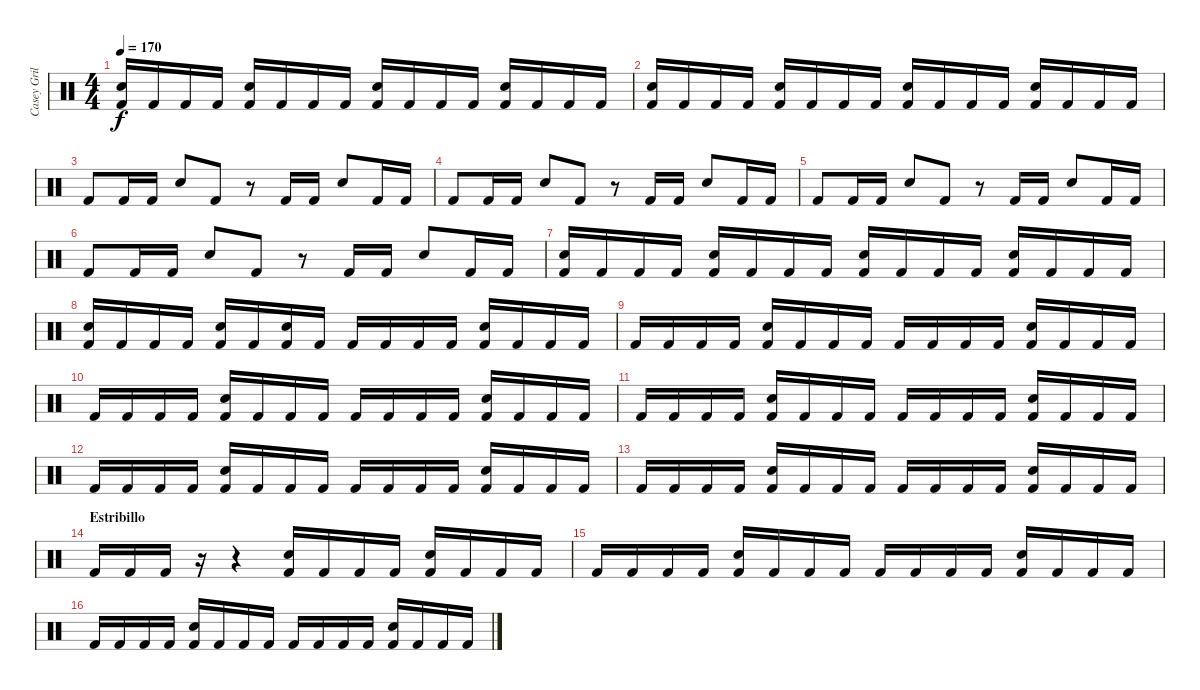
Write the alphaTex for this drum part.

\track ("Casey Grillo" "Casey Gril") {instrument percussion}
\staff {score}
\articulation defaults
\ts (4 4)
\tempo 170
\clef neutral
\ks c
("Snare (hit) 2" "Kick (hit) 2").16{dy f} "Kick (hit) 2".16 "Kick (hit) 2".16 "Kick (hit) 2".16 ("Snare (hit) 2" "Kick (hit) 2").16 "Kick (hit) 2".16 "Kick (hit) 2".16 "Kick (hit) 2".16 ("Snare (hit) 2" "Kick (hit) 2").16 "Kick (hit) 2".16 "Kick (hit) 2".16 "Kick (hit) 2".16 ("Snare (hit) 2" "Kick (hit) 2").16 "Kick (hit) 2".16 "Kick (hit) 2".16 "Kick (hit) 2".16 |
("Snare (hit) 2" "Kick (hit) 2").16 "Kick (hit) 2".16 "Kick (hit) 2".16 "Kick (hit) 2".16 ("Snare (hit) 2" "Kick (hit) 2").16 "Kick (hit) 2".16 "Kick (hit) 2".16 "Kick (hit) 2".16 ("Snare (hit) 2" "Kick (hit) 2").16 "Kick (hit) 2".16 "Kick (hit) 2".16 "Kick (hit) 2".16 ("Snare (hit) 2" "Kick (hit) 2").16 "Kick (hit) 2".16 "Kick (hit) 2".16 "Kick (hit) 2".16 |
"Kick (hit) 2".8 "Kick (hit) 2".16 "Kick (hit) 2".16 "Snare (hit) 2".8 "Kick (hit) 2".8 r.8 "Kick (hit) 2".16 "Kick (hit) 2".16 "Snare (hit) 2".8 "Kick (hit) 2".16 "Kick (hit) 2".16 |
"Kick (hit) 2".8 "Kick (hit) 2".16 "Kick (hit) 2".16 "Snare (hit) 2".8 "Kick (hit) 2".8 r.8 "Kick (hit) 2".16 "Kick (hit) 2".16 "Snare (hit) 2".8 "Kick (hit) 2".16 "Kick (hit) 2".16 |
"Kick (hit) 2".8 "Kick (hit) 2".16 "Kick (hit) 2".16 "Snare (hit) 2".8 "Kick (hit) 2".8 r.8 "Kick (hit) 2".16 "Kick (hit) 2".16 "Snare (hit) 2".8 "Kick (hit) 2".16 "Kick (hit) 2".16 |
"Kick (hit) 2".8 "Kick (hit) 2".16 "Kick (hit) 2".16 "Snare (hit) 2".8 "Kick (hit) 2".8 r.8 "Kick (hit) 2".16 "Kick (hit) 2".16 "Snare (hit) 2".8 "Kick (hit) 2".16 "Kick (hit) 2".16 |
("Snare (hit) 2" "Kick (hit) 2").16 "Kick (hit) 2".16 "Kick (hit) 2".16 "Kick (hit) 2".16 ("Snare (hit) 2" "Kick (hit) 2").16 "Kick (hit) 2".16 "Kick (hit) 2".16 "Kick (hit) 2".16 ("Snare (hit) 2" "Kick (hit) 2").16 "Kick (hit) 2".16 "Kick (hit) 2".16 "Kick (hit) 2".16 ("Snare (hit) 2" "Kick (hit) 2").16 "Kick (hit) 2".16 "Kick (hit) 2".16 "Kick (hit) 2".16 |
("Snare (hit) 2" "Kick (hit) 2").16 "Kick (hit) 2".16 "Kick (hit) 2".16 "Kick (hit) 2".16 ("Snare (hit) 2" "Kick (hit) 2").16 "Kick (hit) 2".16 ("Snare (hit) 2" "Kick (hit) 2").16 "Kick (hit) 2".16 "Kick (hit) 2".16 "Kick (hit) 2".16 "Kick (hit) 2".16 "Kick (hit) 2".16 ("Snare (hit) 2" "Kick (hit) 2").16 "Kick (hit) 2".16 "Kick (hit) 2".16 "Kick (hit) 2".16 |
"Kick (hit) 2".16 "Kick (hit) 2".16 "Kick (hit) 2".16 "Kick (hit) 2".16 ("Snare (hit) 2" "Kick (hit) 2").16 "Kick (hit) 2".16 "Kick (hit) 2".16 "Kick (hit) 2".16 "Kick (hit) 2".16 "Kick (hit) 2".16 "Kick (hit) 2".16 "Kick (hit) 2".16 ("Snare (hit) 2" "Kick (hit) 2").16 "Kick (hit) 2".16 "Kick (hit) 2".16 "Kick (hit) 2".16 |
"Kick (hit) 2".16 "Kick (hit) 2".16 "Kick (hit) 2".16 "Kick (hit) 2".16 ("Snare (hit) 2" "Kick (hit) 2").16 "Kick (hit) 2".16 "Kick (hit) 2".16 "Kick (hit) 2".16 "Kick (hit) 2".16 "Kick (hit) 2".16 "Kick (hit) 2".16 "Kick (hit) 2".16 ("Snare (hit) 2" "Kick (hit) 2").16 "Kick (hit) 2".16 "Kick (hit) 2".16 "Kick (hit) 2".16 |
"Kick (hit) 2".16 "Kick (hit) 2".16 "Kick (hit) 2".16 "Kick (hit) 2".16 ("Snare (hit) 2" "Kick (hit) 2").16 "Kick (hit) 2".16 "Kick (hit) 2".16 "Kick (hit) 2".16 "Kick (hit) 2".16 "Kick (hit) 2".16 "Kick (hit) 2".16 "Kick (hit) 2".16 ("Snare (hit) 2" "Kick (hit) 2").16 "Kick (hit) 2".16 "Kick (hit) 2".16 "Kick (hit) 2".16 |
"Kick (hit) 2".16 "Kick (hit) 2".16 "Kick (hit) 2".16 "Kick (hit) 2".16 ("Snare (hit) 2" "Kick (hit) 2").16 "Kick (hit) 2".16 "Kick (hit) 2".16 "Kick (hit) 2".16 "Kick (hit) 2".16 "Kick (hit) 2".16 "Kick (hit) 2".16 "Kick (hit) 2".16 ("Snare (hit) 2" "Kick (hit) 2").16 "Kick (hit) 2".16 "Kick (hit) 2".16 "Kick (hit) 2".16 |
"Kick (hit) 2".16 "Kick (hit) 2".16 "Kick (hit) 2".16 "Kick (hit) 2".16 ("Snare (hit) 2" "Kick (hit) 2").16 "Kick (hit) 2".16 "Kick (hit) 2".16 "Kick (hit) 2".16 "Kick (hit) 2".16 "Kick (hit) 2".16 "Kick (hit) 2".16 "Kick (hit) 2".16 ("Snare (hit) 2" "Kick (hit) 2").16 "Kick (hit) 2".16 "Kick (hit) 2".16 "Kick (hit) 2".16 |
\section ("" "Estribillo")
"Kick (hit) 2".16 "Kick (hit) 2".16 "Kick (hit) 2".16 r.16 r.4 ("Snare (hit) 2" "Kick (hit) 2").16 "Kick (hit) 2".16 "Kick (hit) 2".16 "Kick (hit) 2".16 ("Snare (hit) 2" "Kick (hit) 2").16 "Kick (hit) 2".16 "Kick (hit) 2".16 "Kick (hit) 2".16 |
"Kick (hit) 2".16 "Kick (hit) 2".16 "Kick (hit) 2".16 "Kick (hit) 2".16 ("Snare (hit) 2" "Kick (hit) 2").16 "Kick (hit) 2".16 "Kick (hit) 2".16 "Kick (hit) 2".16 "Kick (hit) 2".16 "Kick (hit) 2".16 "Kick (hit) 2".16 "Kick (hit) 2".16 ("Snare (hit) 2" "Kick (hit) 2").16 "Kick (hit) 2".16 "Kick (hit) 2".16 "Kick (hit) 2".16 |
"Kick (hit) 2".16 "Kick (hit) 2".16 "Kick (hit) 2".16 "Kick (hit) 2".16 ("Snare (hit) 2" "Kick (hit) 2").16 "Kick (hit) 2".16 "Kick (hit) 2".16 "Kick (hit) 2".16 "Kick (hit) 2".16 "Kick (hit) 2".16 "Kick (hit) 2".16 "Kick (hit) 2".16 ("Snare (hit) 2" "Kick (hit) 2").16 "Kick (hit) 2".16 "Kick (hit) 2".16 "Kick (hit) 2".16
